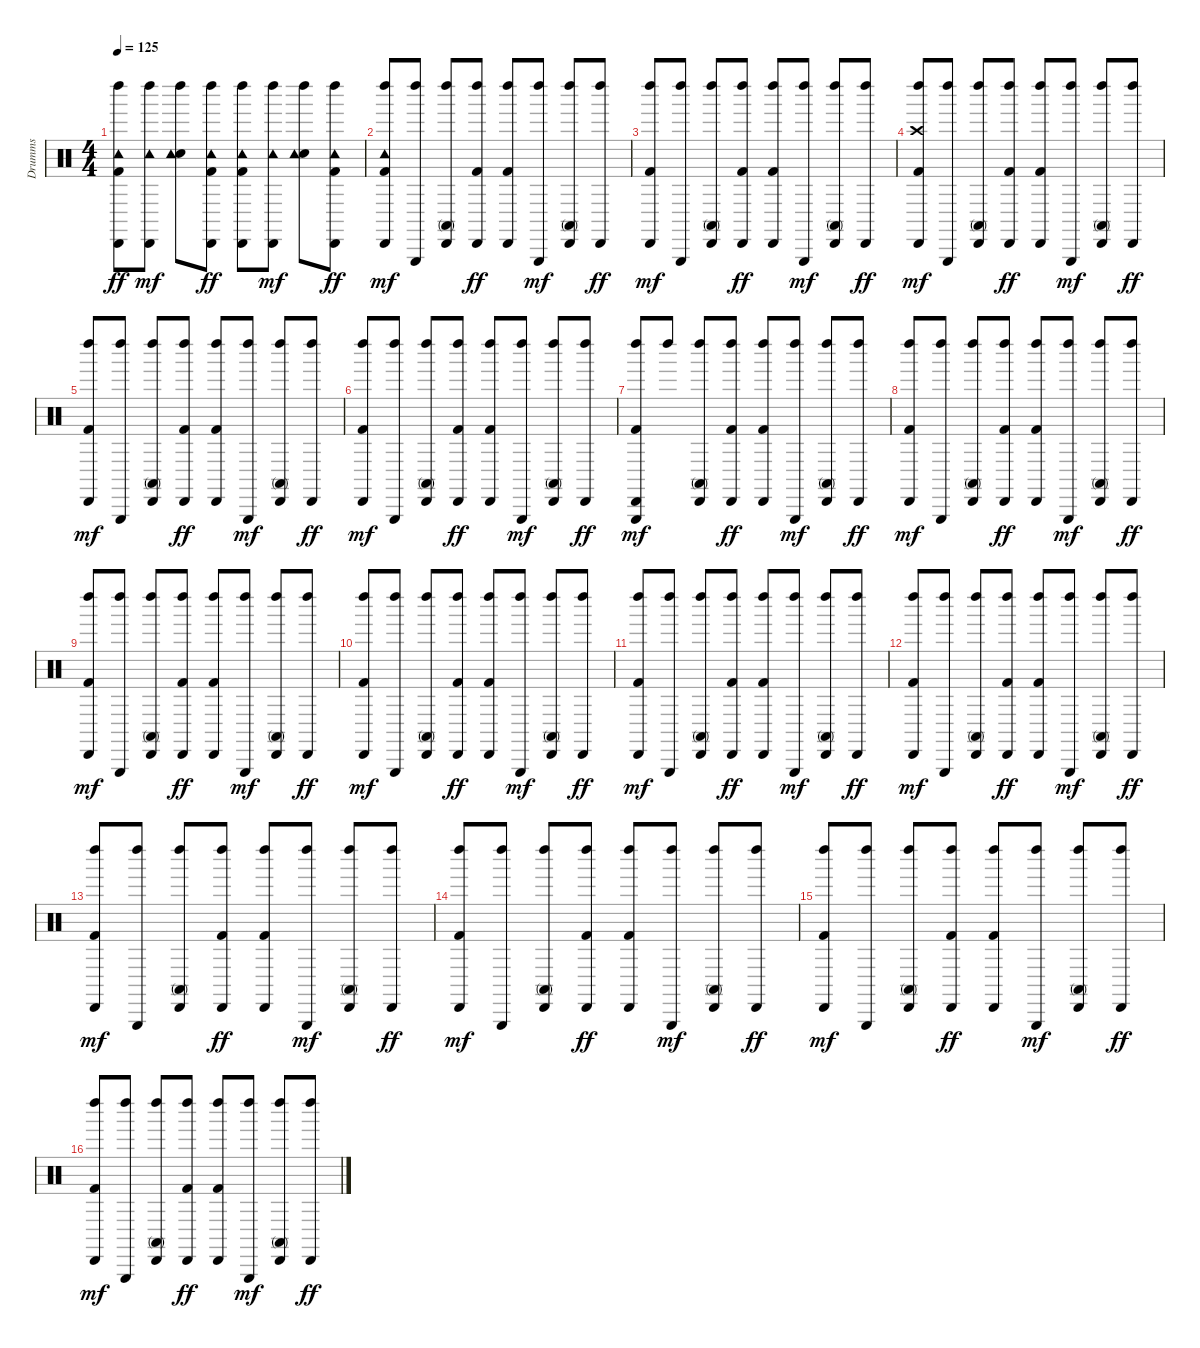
\track ("Drumms" "Drumms") {instrument percussion}
\staff {score}
\articulation defaults
\ts (4 4)
\tempo 125
\clef neutral
\ks c
("Kick (hit) 2" "Tambourine (hit)" "Cabasa (hit)" "Left Maraca (hit)").8{dy ff} ("Tambourine (hit)" "Cabasa (hit)" "Left Maraca (hit)").8{dy mf} ("Snare (hit) 2" "Tambourine (hit)" "Left Maraca (hit)").8 ("Kick (hit) 2" "Tambourine (hit)" "Cabasa (hit)" "Left Maraca (hit)").8{dy ff} ("Kick (hit) 2" "Tambourine (hit)" "Cabasa (hit)" "Left Maraca (hit)").8 ("Tambourine (hit)" "Cabasa (hit)" "Left Maraca (hit)").8{dy mf} ("Snare (hit) 2" "Tambourine (hit)" "Left Maraca (hit)").8 ("Kick (hit) 2" "Tambourine (hit)" "Cabasa (hit)" "Left Maraca (hit)").8{dy ff} |
("Kick (hit) 2" "Cabasa (hit)" "Left Maraca (hit)" "Tambourine (hit)").8{dy mf} ("Left Maraca (hit)" "Triangle (hit)").8 ("Conga high (mute)" "Cabasa (hit)" "Left Maraca (hit)").8 ("Kick (hit) 2" "Cabasa (hit)" "Left Maraca (hit)").8{dy ff} ("Kick (hit) 2" "Cabasa (hit)" "Left Maraca (hit)").8 ("Left Maraca (hit)" "Triangle (hit)").8{dy mf} ("Conga high (mute)" "Cabasa (hit)" "Left Maraca (hit)").8 ("Cabasa (hit)" "Left Maraca (hit)").8{dy ff} |
("Kick (hit) 2" "Cabasa (hit)" "Left Maraca (hit)").8{dy mf} ("Left Maraca (hit)" "Triangle (hit)").8 ("Conga high (mute)" "Cabasa (hit)" "Left Maraca (hit)").8 ("Kick (hit) 2" "Cabasa (hit)" "Left Maraca (hit)").8{dy ff} ("Kick (hit) 2" "Cabasa (hit)" "Left Maraca (hit)").8 ("Left Maraca (hit)" "Triangle (hit)").8{dy mf} ("Conga high (mute)" "Cabasa (hit)" "Left Maraca (hit)").8 ("Cabasa (hit)" "Left Maraca (hit)").8{dy ff} |
("Kick (hit) 2" "Cabasa (hit)" "Left Maraca (hit)" "Crash high (hit)").8{dy mf} ("Left Maraca (hit)" "Triangle (hit)").8 ("Conga high (mute)" "Cabasa (hit)" "Left Maraca (hit)").8 ("Kick (hit) 2" "Cabasa (hit)" "Left Maraca (hit)").8{dy ff} ("Kick (hit) 2" "Cabasa (hit)" "Left Maraca (hit)").8 ("Left Maraca (hit)" "Triangle (hit)").8{dy mf} ("Conga high (mute)" "Cabasa (hit)" "Left Maraca (hit)").8 ("Cabasa (hit)" "Left Maraca (hit)").8{dy ff} |
("Kick (hit) 2" "Cabasa (hit)" "Left Maraca (hit)").8{dy mf} ("Left Maraca (hit)" "Triangle (hit)").8 ("Conga high (mute)" "Cabasa (hit)" "Left Maraca (hit)").8 ("Kick (hit) 2" "Cabasa (hit)" "Left Maraca (hit)").8{dy ff} ("Kick (hit) 2" "Cabasa (hit)" "Left Maraca (hit)").8 ("Left Maraca (hit)" "Triangle (hit)").8{dy mf} ("Conga high (mute)" "Cabasa (hit)" "Left Maraca (hit)").8 ("Cabasa (hit)" "Left Maraca (hit)").8{dy ff} |
("Kick (hit) 2" "Cabasa (hit)" "Left Maraca (hit)").8{dy mf} ("Left Maraca (hit)" "Triangle (hit)").8 ("Conga high (mute)" "Cabasa (hit)" "Left Maraca (hit)").8 ("Kick (hit) 2" "Cabasa (hit)" "Left Maraca (hit)").8{dy ff} ("Kick (hit) 2" "Cabasa (hit)" "Left Maraca (hit)").8 ("Left Maraca (hit)" "Triangle (hit)").8{dy mf} ("Conga high (mute)" "Cabasa (hit)" "Left Maraca (hit)").8 ("Cabasa (hit)" "Left Maraca (hit)").8{dy ff} |
("Kick (hit) 2" "Cabasa (hit)" "Left Maraca (hit)" "Triangle (hit)").8{dy mf} "Left Maraca (hit)".8 ("Conga high (mute)" "Cabasa (hit)" "Left Maraca (hit)").8 ("Kick (hit) 2" "Cabasa (hit)" "Left Maraca (hit)").8{dy ff} ("Kick (hit) 2" "Cabasa (hit)" "Left Maraca (hit)").8 ("Left Maraca (hit)" "Triangle (hit)").8{dy mf} ("Conga high (mute)" "Cabasa (hit)" "Left Maraca (hit)").8 ("Cabasa (hit)" "Left Maraca (hit)").8{dy ff} |
("Kick (hit) 2" "Cabasa (hit)" "Left Maraca (hit)").8{dy mf} ("Left Maraca (hit)" "Triangle (hit)").8 ("Conga high (mute)" "Cabasa (hit)" "Left Maraca (hit)").8 ("Kick (hit) 2" "Cabasa (hit)" "Left Maraca (hit)").8{dy ff} ("Kick (hit) 2" "Cabasa (hit)" "Left Maraca (hit)").8 ("Left Maraca (hit)" "Triangle (hit)").8{dy mf} ("Conga high (mute)" "Cabasa (hit)" "Left Maraca (hit)").8 ("Cabasa (hit)" "Left Maraca (hit)").8{dy ff} |
("Kick (hit) 2" "Cabasa (hit)" "Left Maraca (hit)").8{dy mf} ("Left Maraca (hit)" "Triangle (hit)").8 ("Conga high (mute)" "Cabasa (hit)" "Left Maraca (hit)").8 ("Kick (hit) 2" "Cabasa (hit)" "Left Maraca (hit)").8{dy ff} ("Kick (hit) 2" "Cabasa (hit)" "Left Maraca (hit)").8 ("Left Maraca (hit)" "Triangle (hit)").8{dy mf} ("Conga high (mute)" "Cabasa (hit)" "Left Maraca (hit)").8 ("Cabasa (hit)" "Left Maraca (hit)").8{dy ff} |
("Kick (hit) 2" "Cabasa (hit)" "Left Maraca (hit)").8{dy mf} ("Left Maraca (hit)" "Triangle (hit)").8 ("Conga high (mute)" "Cabasa (hit)" "Left Maraca (hit)").8 ("Kick (hit) 2" "Cabasa (hit)" "Left Maraca (hit)").8{dy ff} ("Kick (hit) 2" "Cabasa (hit)" "Left Maraca (hit)").8 ("Left Maraca (hit)" "Triangle (hit)").8{dy mf} ("Conga high (mute)" "Cabasa (hit)" "Left Maraca (hit)").8 ("Cabasa (hit)" "Left Maraca (hit)").8{dy ff} |
("Kick (hit) 2" "Cabasa (hit)" "Left Maraca (hit)").8{dy mf} ("Left Maraca (hit)" "Triangle (hit)").8 ("Conga high (mute)" "Cabasa (hit)" "Left Maraca (hit)").8 ("Kick (hit) 2" "Cabasa (hit)" "Left Maraca (hit)").8{dy ff} ("Kick (hit) 2" "Cabasa (hit)" "Left Maraca (hit)").8 ("Left Maraca (hit)" "Triangle (hit)").8{dy mf} ("Conga high (mute)" "Cabasa (hit)" "Left Maraca (hit)").8 ("Cabasa (hit)" "Left Maraca (hit)").8{dy ff} |
("Kick (hit) 2" "Cabasa (hit)" "Left Maraca (hit)").8{dy mf} ("Left Maraca (hit)" "Triangle (hit)").8 ("Conga high (mute)" "Cabasa (hit)" "Left Maraca (hit)").8 ("Kick (hit) 2" "Cabasa (hit)" "Left Maraca (hit)").8{dy ff} ("Kick (hit) 2" "Cabasa (hit)" "Left Maraca (hit)").8 ("Left Maraca (hit)" "Triangle (hit)").8{dy mf} ("Conga high (mute)" "Cabasa (hit)" "Left Maraca (hit)").8 ("Cabasa (hit)" "Left Maraca (hit)").8{dy ff} |
("Kick (hit) 2" "Cabasa (hit)" "Left Maraca (hit)").8{dy mf} ("Left Maraca (hit)" "Triangle (hit)").8 ("Conga high (mute)" "Cabasa (hit)" "Left Maraca (hit)").8 ("Kick (hit) 2" "Cabasa (hit)" "Left Maraca (hit)").8{dy ff} ("Kick (hit) 2" "Cabasa (hit)" "Left Maraca (hit)").8 ("Left Maraca (hit)" "Triangle (hit)").8{dy mf} ("Conga high (mute)" "Cabasa (hit)" "Left Maraca (hit)").8 ("Cabasa (hit)" "Left Maraca (hit)").8{dy ff} |
("Kick (hit) 2" "Cabasa (hit)" "Left Maraca (hit)").8{dy mf} ("Left Maraca (hit)" "Triangle (hit)").8 ("Conga high (mute)" "Cabasa (hit)" "Left Maraca (hit)").8 ("Kick (hit) 2" "Cabasa (hit)" "Left Maraca (hit)").8{dy ff} ("Kick (hit) 2" "Cabasa (hit)" "Left Maraca (hit)").8 ("Left Maraca (hit)" "Triangle (hit)").8{dy mf} ("Conga high (mute)" "Cabasa (hit)" "Left Maraca (hit)").8 ("Cabasa (hit)" "Left Maraca (hit)").8{dy ff} |
("Kick (hit) 2" "Cabasa (hit)" "Left Maraca (hit)").8{dy mf} ("Left Maraca (hit)" "Triangle (hit)").8 ("Conga high (mute)" "Cabasa (hit)" "Left Maraca (hit)").8 ("Kick (hit) 2" "Cabasa (hit)" "Left Maraca (hit)").8{dy ff} ("Kick (hit) 2" "Cabasa (hit)" "Left Maraca (hit)").8 ("Left Maraca (hit)" "Triangle (hit)").8{dy mf} ("Conga high (mute)" "Cabasa (hit)" "Left Maraca (hit)").8 ("Cabasa (hit)" "Left Maraca (hit)").8{dy ff} |
("Kick (hit) 2" "Cabasa (hit)" "Left Maraca (hit)").8{dy mf} ("Left Maraca (hit)" "Triangle (hit)").8 ("Conga high (mute)" "Cabasa (hit)" "Left Maraca (hit)").8 ("Kick (hit) 2" "Cabasa (hit)" "Left Maraca (hit)").8{dy ff} ("Kick (hit) 2" "Cabasa (hit)" "Left Maraca (hit)").8 ("Left Maraca (hit)" "Triangle (hit)").8{dy mf} ("Conga high (mute)" "Cabasa (hit)" "Left Maraca (hit)").8 ("Cabasa (hit)" "Left Maraca (hit)").8{dy ff}
